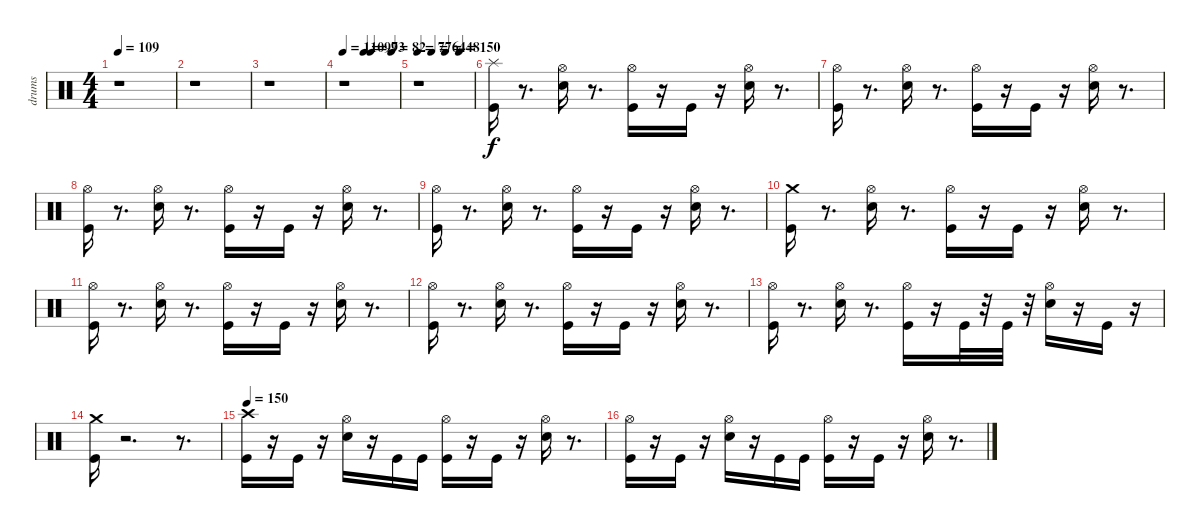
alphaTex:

\track ("drums" "drums") {instrument percussion}
\staff {score}
\articulation defaults
\ts (4 4)
\tempo 109
\clef neutral
\ks c
r.1{dy f} |
r.1 |
r.1 |
\tempo 110
\tempo (97 0.375)
\tempo (93 0.5)
\tempo (82 0.875)
r.1 |
\tempo 77
\tempo (64 0.25)
\tempo (48 0.5)
\tempo (150 0.75)
r.1 |
("Splash (hit)" "Kick (hit)").16 r.8{d} ("Hi-Hat (open)" "Electric Snare (hit)").16 r.8{d} ("Hi-Hat (open)" "Kick (hit)").16 r.16 "Kick (hit)".16 r.16 ("Hi-Hat (open)" "Electric Snare (hit)").16 r.8{d} |
("Hi-Hat (open)" "Kick (hit)").16 r.8{d} ("Hi-Hat (open)" "Electric Snare (hit)").16 r.8{d} ("Hi-Hat (open)" "Kick (hit)").16 r.16 "Kick (hit)".16 r.16 ("Hi-Hat (open)" "Electric Snare (hit)").16 r.8{d} |
("Kick (hit)" "Hi-Hat (open)").16 r.8{d} ("Electric Snare (hit)" "Hi-Hat (open)").16 r.8{d} ("Kick (hit)" "Hi-Hat (open)").16 r.16 "Kick (hit)".16 r.16 ("Electric Snare (hit)" "Hi-Hat (open)").16 r.8{d} |
("Hi-Hat (open)" "Kick (hit)").16 r.8{d} ("Hi-Hat (open)" "Electric Snare (hit)").16 r.8{d} ("Hi-Hat (open)" "Kick (hit)").16 r.16 "Kick (hit)".16 r.16 ("Hi-Hat (open)" "Electric Snare (hit)").16 r.8{d} |
("Crash medium (hit)" "Kick (hit)").16 r.8{d} ("Hi-Hat (open)" "Electric Snare (hit)").16 r.8{d} ("Hi-Hat (open)" "Kick (hit)").16 r.16 "Kick (hit)".16 r.16 ("Hi-Hat (open)" "Electric Snare (hit)").16 r.8{d} |
("Hi-Hat (open)" "Kick (hit)").16 r.8{d} ("Hi-Hat (open)" "Electric Snare (hit)").16 r.8{d} ("Hi-Hat (open)" "Kick (hit)").16 r.16 "Kick (hit)".16 r.16 ("Hi-Hat (open)" "Electric Snare (hit)").16 r.8{d} |
("Kick (hit)" "Hi-Hat (open)").16 r.8{d} ("Electric Snare (hit)" "Hi-Hat (open)").16 r.8{d} ("Kick (hit)" "Hi-Hat (open)").16 r.16 "Kick (hit)".16 r.16 ("Electric Snare (hit)" "Hi-Hat (open)").16 r.8{d} |
("Hi-Hat (open)" "Kick (hit)").16 r.8{d} ("Hi-Hat (open)" "Electric Snare (hit)").16 r.8{d} ("Hi-Hat (open)" "Kick (hit)").16 r.16 "Kick (hit)".32 r.32 "Kick (hit)".32 r.32 ("Hi-Hat (open)" "Electric Snare (hit)").16 r.16 "Kick (hit)".16 r.16 |
("Crash medium (hit)" "Kick (hit)").16 r.2{d} r.8{d} |
\tempo 150
("Crash high (hit)" "Kick (hit)").16 r.16 "Kick (hit)".16 r.16 ("Hi-Hat (open)" "Electric Snare (hit)").16 r.16 "Kick (hit)".16 "Kick (hit)".16 ("Hi-Hat (open)" "Kick (hit)").16 r.16 "Kick (hit)".16 r.16 ("Hi-Hat (open)" "Electric Snare (hit)").16 r.8{d} |
("Hi-Hat (open)" "Kick (hit)").16 r.16 "Kick (hit)".16 r.16 ("Hi-Hat (open)" "Electric Snare (hit)").16 r.16 "Kick (hit)".16 "Kick (hit)".16 ("Hi-Hat (open)" "Kick (hit)").16 r.16 "Kick (hit)".16 r.16 ("Hi-Hat (open)" "Electric Snare (hit)").16 r.8{d}
